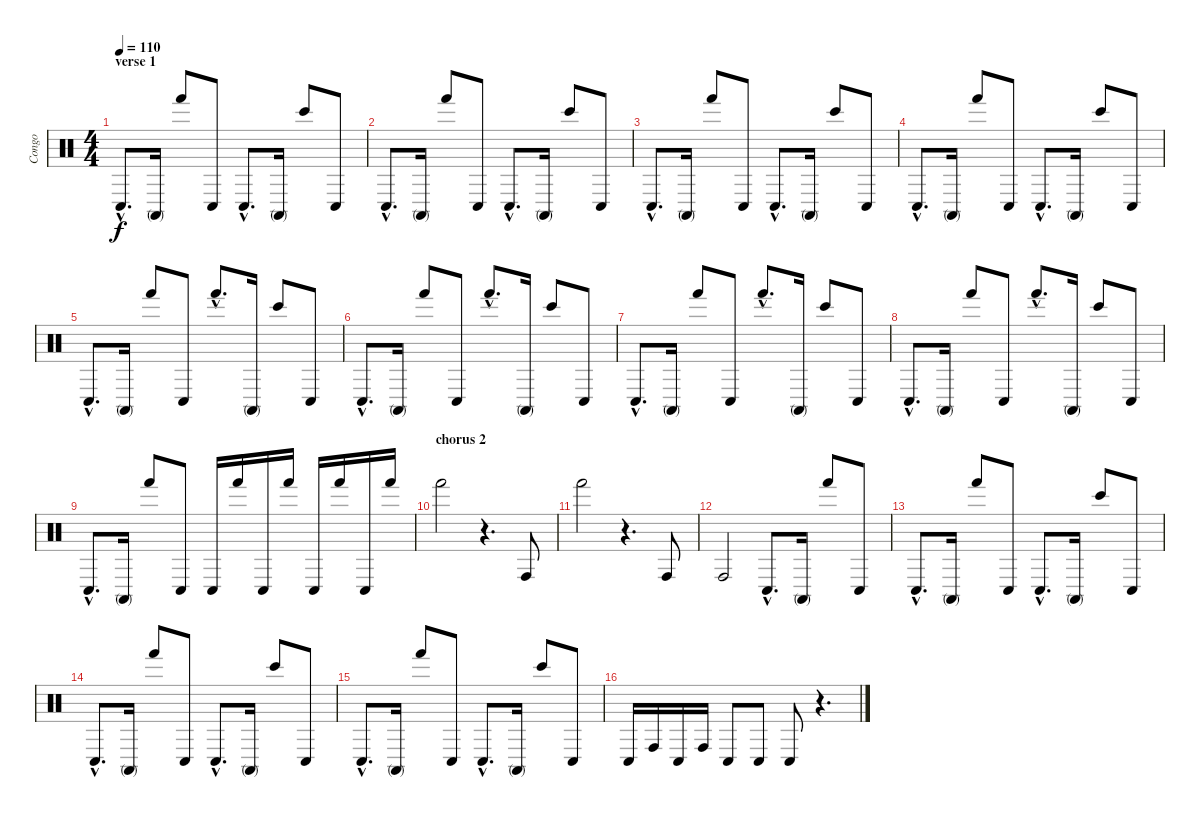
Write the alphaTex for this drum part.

\track ("Congo" "Congo") {instrument percussion}
\staff {score}
\articulation defaults
\ts (4 4)
\section ("" "verse 1")
\tempo 110
\clef neutral
\ks c "Conga low (hit)"{hac}.8{d dy f} "Conga high (mute)".16 "Hand (hit)".8 "Conga low (hit)".8 "Conga low (hit)"{hac}.8{d} "Conga high (mute)".16 "Bongo High (hit)".8 "Conga low (hit)".8
|
"Conga low (hit)"{hac}.8{d} "Conga high (mute)".16 "Hand (hit)".8 "Conga low (hit)".8 "Conga low (hit)"{hac}.8{d} "Conga high (mute)".16 "Bongo High (hit)".8 "Conga low (hit)".8 |
"Conga low (hit)"{hac}.8{d} "Conga high (mute)".16 "Hand (hit)".8 "Conga low (hit)".8 "Conga low (hit)"{hac}.8{d} "Conga high (mute)".16 "Bongo High (hit)".8 "Conga low (hit)".8 |
"Conga low (hit)"{hac}.8{d} "Conga high (mute)".16 "Hand (hit)".8 "Conga low (hit)".8 "Conga low (hit)"{hac}.8{d} "Conga high (mute)".16 "Bongo High (hit)".8 "Conga low (hit)".8 |
"Conga low (hit)"{hac}.8{d} "Conga high (mute)".16 "Hand (hit)".8 "Conga low (hit)".8 "Hand (hit)"{hac}.8{d} "Conga high (mute)".16 "Bongo High (hit)".8 "Conga low (hit)".8 |
"Conga low (hit)"{hac}.8{d} "Conga high (mute)".16 "Hand (hit)".8 "Conga low (hit)".8 "Hand (hit)"{hac}.8{d} "Conga high (mute)".16 "Bongo High (hit)".8 "Conga low (hit)".8 |
"Conga low (hit)"{hac}.8{d} "Conga high (mute)".16 "Hand (hit)".8 "Conga low (hit)".8 "Hand (hit)"{hac}.8{d} "Conga high (mute)".16 "Bongo High (hit)".8 "Conga low (hit)".8 |
"Conga low (hit)"{hac}.8{d} "Conga high (mute)".16 "Hand (hit)".8 "Conga low (hit)".8 "Hand (hit)"{hac}.8{d} "Conga high (mute)".16 "Bongo High (hit)".8 "Conga low (hit)".8 |
"Conga low (hit)"{hac}.8{d} "Conga high (mute)".16 "Hand (hit)".8 "Conga low (hit)".8 "Conga low (hit)".16 "Hand (hit)".16 "Conga low (hit)".16 "Hand (hit)".16 "Conga low (hit)".16 "Hand (hit)".16 "Conga low (hit)".16 "Hand (hit)".16 |
\section ("" "chorus 2")
"Hand (hit)".2 r.4{d} "Conga high (hit)".8 |
"Hand (hit)".2 r.4{d} "Conga high (hit)".8 |
"Conga high (hit)".2 "Conga low (hit)"{hac}.8{d} "Conga high (mute)".16 "Hand (hit)".8 "Conga low (hit)".8 |
"Conga low (hit)"{hac}.8{d} "Conga high (mute)".16 "Hand (hit)".8 "Conga low (hit)".8 "Conga low (hit)"{hac}.8{d} "Conga high (mute)".16 "Bongo High (hit)".8 "Conga low (hit)".8 |
"Conga low (hit)"{hac}.8{d} "Conga high (mute)".16 "Hand (hit)".8 "Conga low (hit)".8 "Conga low (hit)"{hac}.8{d} "Conga high (mute)".16 "Bongo High (hit)".8 "Conga low (hit)".8 |
"Conga low (hit)"{hac}.8{d} "Conga high (mute)".16 "Hand (hit)".8 "Conga low (hit)".8 "Conga low (hit)"{hac}.8{d} "Conga high (mute)".16 "Bongo High (hit)".8 "Conga low (hit)".8 |
"Conga low (hit)".16 "Conga high (hit)".16 "Conga low (hit)".16 "Conga high (hit)".16 "Conga low (hit)".8 "Conga low (hit)".8 "Conga low (hit)".8 r.4{d}
